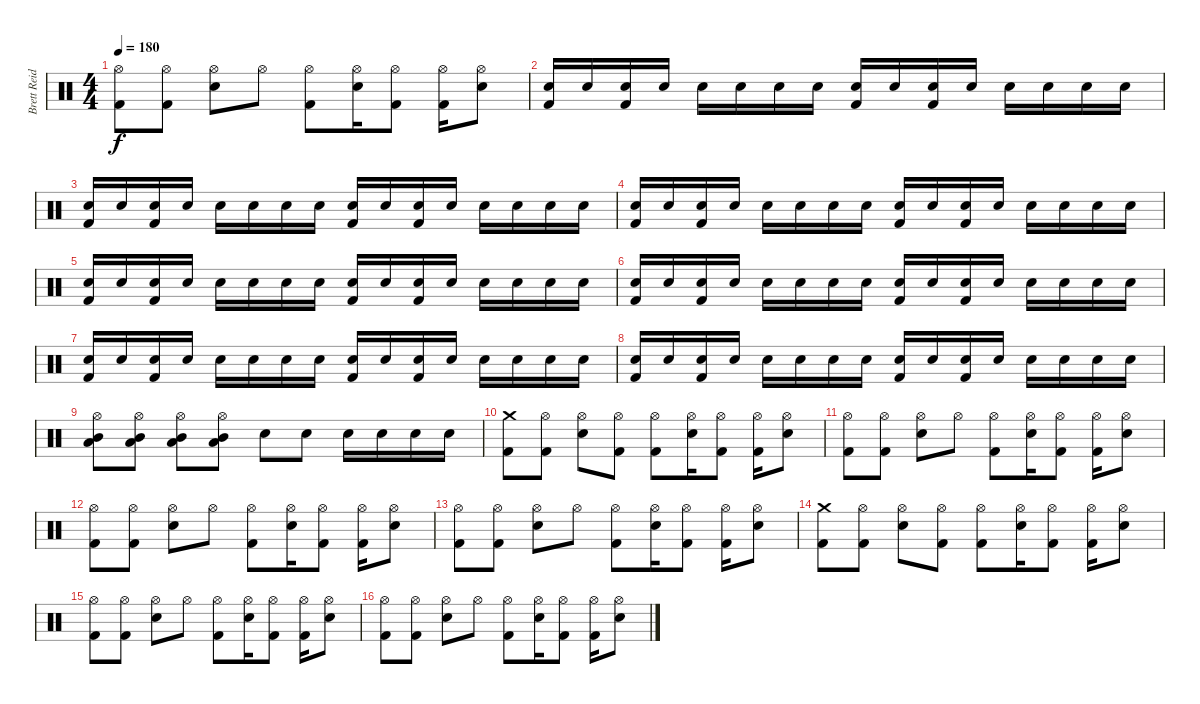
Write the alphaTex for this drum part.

\track ("Brett Reid" "Brett Reid") {instrument percussion}
\staff {score}
\articulation defaults
\ts (4 4)
\tempo 180
\clef neutral
\ks c
("Hi-Hat (open)" "Kick (hit) 2").8{dy f} ("Hi-Hat (open)" "Kick (hit) 2").8 ("Hi-Hat (open)" "Snare (hit) 2").8 "Hi-Hat (open)".8 ("Hi-Hat (open)" "Kick (hit) 2").8 ("Hi-Hat (open)" "Snare (hit) 2").16 ("Hi-Hat (open)" "Kick (hit) 2").8 ("Hi-Hat (open)" "Kick (hit) 2").16 ("Hi-Hat (open)" "Snare (hit) 2").8 |
("Snare (hit) 2" "Kick (hit) 2").16 "Snare (hit) 2".16 ("Snare (hit) 2" "Kick (hit) 2").16 "Snare (hit) 2".16 "Snare (hit) 2".16 "Snare (hit) 2".16 "Snare (hit) 2".16 "Snare (hit) 2".16 ("Snare (hit) 2" "Kick (hit) 2").16 "Snare (hit) 2".16 ("Snare (hit) 2" "Kick (hit) 2").16 "Snare (hit) 2".16 "Snare (hit) 2".16 "Snare (hit) 2".16 "Snare (hit) 2".16 "Snare (hit) 2".16 |
("Snare (hit) 2" "Kick (hit) 2").16 "Snare (hit) 2".16 ("Snare (hit) 2" "Kick (hit) 2").16 "Snare (hit) 2".16 "Snare (hit) 2".16 "Snare (hit) 2".16 "Snare (hit) 2".16 "Snare (hit) 2".16 ("Snare (hit) 2" "Kick (hit) 2").16 "Snare (hit) 2".16 ("Snare (hit) 2" "Kick (hit) 2").16 "Snare (hit) 2".16 "Snare (hit) 2".16 "Snare (hit) 2".16 "Snare (hit) 2".16 "Snare (hit) 2".16 |
("Snare (hit) 2" "Kick (hit) 2").16 "Snare (hit) 2".16 ("Snare (hit) 2" "Kick (hit) 2").16 "Snare (hit) 2".16 "Snare (hit) 2".16 "Snare (hit) 2".16 "Snare (hit) 2".16 "Snare (hit) 2".16 ("Snare (hit) 2" "Kick (hit) 2").16 "Snare (hit) 2".16 ("Snare (hit) 2" "Kick (hit) 2").16 "Snare (hit) 2".16 "Snare (hit) 2".16 "Snare (hit) 2".16 "Snare (hit) 2".16 "Snare (hit) 2".16 |
("Snare (hit) 2" "Kick (hit) 2").16 "Snare (hit) 2".16 ("Snare (hit) 2" "Kick (hit) 2").16 "Snare (hit) 2".16 "Snare (hit) 2".16 "Snare (hit) 2".16 "Snare (hit) 2".16 "Snare (hit) 2".16 ("Snare (hit) 2" "Kick (hit) 2").16 "Snare (hit) 2".16 ("Snare (hit) 2" "Kick (hit) 2").16 "Snare (hit) 2".16 "Snare (hit) 2".16 "Snare (hit) 2".16 "Snare (hit) 2".16 "Snare (hit) 2".16 |
("Snare (hit) 2" "Kick (hit) 2").16 "Snare (hit) 2".16 ("Snare (hit) 2" "Kick (hit) 2").16 "Snare (hit) 2".16 "Snare (hit) 2".16 "Snare (hit) 2".16 "Snare (hit) 2".16 "Snare (hit) 2".16 ("Snare (hit) 2" "Kick (hit) 2").16 "Snare (hit) 2".16 ("Snare (hit) 2" "Kick (hit) 2").16 "Snare (hit) 2".16 "Snare (hit) 2".16 "Snare (hit) 2".16 "Snare (hit) 2".16 "Snare (hit) 2".16 |
("Snare (hit) 2" "Kick (hit) 2").16 "Snare (hit) 2".16 ("Snare (hit) 2" "Kick (hit) 2").16 "Snare (hit) 2".16 "Snare (hit) 2".16 "Snare (hit) 2".16 "Snare (hit) 2".16 "Snare (hit) 2".16 ("Snare (hit) 2" "Kick (hit) 2").16 "Snare (hit) 2".16 ("Snare (hit) 2" "Kick (hit) 2").16 "Snare (hit) 2".16 "Snare (hit) 2".16 "Snare (hit) 2".16 "Snare (hit) 2".16 "Snare (hit) 2".16 |
("Snare (hit) 2" "Kick (hit) 2").16 "Snare (hit) 2".16 ("Snare (hit) 2" "Kick (hit) 2").16 "Snare (hit) 2".16 "Snare (hit) 2".16 "Snare (hit) 2".16 "Snare (hit) 2".16 "Snare (hit) 2".16 ("Snare (hit) 2" "Kick (hit) 2").16 "Snare (hit) 2".16 ("Snare (hit) 2" "Kick (hit) 2").16 "Snare (hit) 2".16 "Snare (hit) 2".16 "Snare (hit) 2".16 "Snare (hit) 2".16 "Snare (hit) 2".16 |
("Hi-Hat (open)" "Low Floor Tom (hit)" "Mid Tom (hit)").8 ("Hi-Hat (open)" "Low Floor Tom (hit)" "Mid Tom (hit)").8 ("Hi-Hat (open)" "Low Floor Tom (hit)" "Mid Tom (hit)").8 ("Hi-Hat (open)" "Low Floor Tom (hit)" "Mid Tom (hit)").8 "Snare (hit) 2".8 "Snare (hit) 2".8 "Snare (hit) 2".16 "Snare (hit) 2".16 "Snare (hit) 2".16 "Snare (hit) 2".16 |
("Crash medium (hit)" "Kick (hit) 2").8 ("Hi-Hat (open)" "Kick (hit) 2").8 ("Hi-Hat (open)" "Snare (hit) 2").8 ("Hi-Hat (open)" "Kick (hit) 2").8 ("Hi-Hat (open)" "Kick (hit) 2").8 ("Hi-Hat (open)" "Snare (hit) 2").16 ("Hi-Hat (open)" "Kick (hit) 2").8 ("Hi-Hat (open)" "Kick (hit) 2").16 ("Hi-Hat (open)" "Snare (hit) 2").8 |
("Hi-Hat (open)" "Kick (hit) 2").8 ("Hi-Hat (open)" "Kick (hit) 2").8 ("Hi-Hat (open)" "Snare (hit) 2").8 "Hi-Hat (open)".8 ("Hi-Hat (open)" "Kick (hit) 2").8 ("Hi-Hat (open)" "Snare (hit) 2").16 ("Hi-Hat (open)" "Kick (hit) 2").8 ("Hi-Hat (open)" "Kick (hit) 2").16 ("Hi-Hat (open)" "Snare (hit) 2").8 |
("Hi-Hat (open)" "Kick (hit) 2").8 ("Hi-Hat (open)" "Kick (hit) 2").8 ("Hi-Hat (open)" "Snare (hit) 2").8 "Hi-Hat (open)".8 ("Hi-Hat (open)" "Kick (hit) 2").8 ("Hi-Hat (open)" "Snare (hit) 2").16 ("Hi-Hat (open)" "Kick (hit) 2").8 ("Hi-Hat (open)" "Kick (hit) 2").16 ("Hi-Hat (open)" "Snare (hit) 2").8 |
("Hi-Hat (open)" "Kick (hit) 2").8 ("Hi-Hat (open)" "Kick (hit) 2").8 ("Hi-Hat (open)" "Snare (hit) 2").8 "Hi-Hat (open)".8 ("Hi-Hat (open)" "Kick (hit) 2").8 ("Hi-Hat (open)" "Snare (hit) 2").16 ("Hi-Hat (open)" "Kick (hit) 2").8 ("Hi-Hat (open)" "Kick (hit) 2").16 ("Hi-Hat (open)" "Snare (hit) 2").8 |
("Crash medium (hit)" "Kick (hit) 2").8 ("Hi-Hat (open)" "Kick (hit) 2").8 ("Hi-Hat (open)" "Snare (hit) 2").8 ("Hi-Hat (open)" "Kick (hit) 2").8 ("Hi-Hat (open)" "Kick (hit) 2").8 ("Hi-Hat (open)" "Snare (hit) 2").16 ("Hi-Hat (open)" "Kick (hit) 2").8 ("Hi-Hat (open)" "Kick (hit) 2").16 ("Hi-Hat (open)" "Snare (hit) 2").8 |
("Hi-Hat (open)" "Kick (hit) 2").8 ("Hi-Hat (open)" "Kick (hit) 2").8 ("Hi-Hat (open)" "Snare (hit) 2").8 "Hi-Hat (open)".8 ("Hi-Hat (open)" "Kick (hit) 2").8 ("Hi-Hat (open)" "Snare (hit) 2").16 ("Hi-Hat (open)" "Kick (hit) 2").8 ("Hi-Hat (open)" "Kick (hit) 2").16 ("Hi-Hat (open)" "Snare (hit) 2").8 |
("Hi-Hat (open)" "Kick (hit) 2").8 ("Hi-Hat (open)" "Kick (hit) 2").8 ("Hi-Hat (open)" "Snare (hit) 2").8 "Hi-Hat (open)".8 ("Hi-Hat (open)" "Kick (hit) 2").8 ("Hi-Hat (open)" "Snare (hit) 2").16 ("Hi-Hat (open)" "Kick (hit) 2").8 ("Hi-Hat (open)" "Kick (hit) 2").16 ("Hi-Hat (open)" "Snare (hit) 2").8
